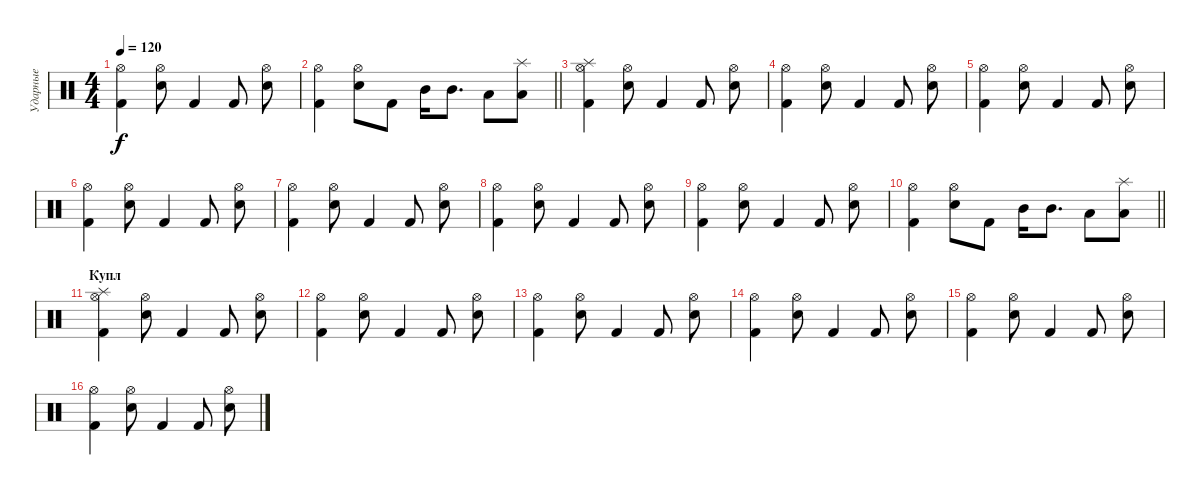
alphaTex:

\track ("Ударные" "Ударные") {instrument percussion}
\staff {score}
\articulation defaults
\ts (4 4)
\tempo 120
\clef neutral
\ks c
("Kick (hit) 2" "Hi-Hat (open)").4{dy f} ("Electric Snare (hit)" "Hi-Hat (open)").8 "Kick (hit) 2".4 "Kick (hit) 2".8 ("Electric Snare (hit)" "Hi-Hat (open)").8 |
\barLineRight lightlight
("Kick (hit) 2" "Hi-Hat (open)").4 ("Electric Snare (hit)" "Hi-Hat (open)").8 "Kick (hit) 2".8 "Mid Tom (hit)".16 "Mid Tom (hit)".8{d} "Low Tom (hit)".8 ("Low Tom (hit)" "Splash (hit)").8 |
("Kick (hit) 2" "Splash (hit)" "Hi-Hat (open)").4 ("Electric Snare (hit)" "Hi-Hat (open)").8 "Kick (hit) 2".4 "Kick (hit) 2".8 ("Electric Snare (hit)" "Hi-Hat (open)").8 |
("Kick (hit) 2" "Hi-Hat (open)").4 ("Electric Snare (hit)" "Hi-Hat (open)").8 "Kick (hit) 2".4 "Kick (hit) 2".8 ("Electric Snare (hit)" "Hi-Hat (open)").8 |
("Kick (hit) 2" "Hi-Hat (open)").4 ("Electric Snare (hit)" "Hi-Hat (open)").8 "Kick (hit) 2".4 "Kick (hit) 2".8 ("Electric Snare (hit)" "Hi-Hat (open)").8 |
("Kick (hit) 2" "Hi-Hat (open)").4 ("Electric Snare (hit)" "Hi-Hat (open)").8 "Kick (hit) 2".4 "Kick (hit) 2".8 ("Electric Snare (hit)" "Hi-Hat (open)").8 |
("Kick (hit) 2" "Hi-Hat (open)").4 ("Electric Snare (hit)" "Hi-Hat (open)").8 "Kick (hit) 2".4 "Kick (hit) 2".8 ("Electric Snare (hit)" "Hi-Hat (open)").8 |
("Kick (hit) 2" "Hi-Hat (open)").4 ("Electric Snare (hit)" "Hi-Hat (open)").8 "Kick (hit) 2".4 "Kick (hit) 2".8 ("Electric Snare (hit)" "Hi-Hat (open)").8 |
("Kick (hit) 2" "Hi-Hat (open)").4 ("Electric Snare (hit)" "Hi-Hat (open)").8 "Kick (hit) 2".4 "Kick (hit) 2".8 ("Electric Snare (hit)" "Hi-Hat (open)").8 |
\barLineRight lightlight
("Kick (hit) 2" "Hi-Hat (open)").4 ("Electric Snare (hit)" "Hi-Hat (open)").8 "Kick (hit) 2".8 "Mid Tom (hit)".16 "Mid Tom (hit)".8{d} "Low Tom (hit)".8 ("Low Tom (hit)" "Splash (hit)").8 |
\section ("" "Купл")
("Kick (hit) 2" "Splash (hit)" "Hi-Hat (open)").4 ("Electric Snare (hit)" "Hi-Hat (open)").8 "Kick (hit) 2".4 "Kick (hit) 2".8 ("Electric Snare (hit)" "Hi-Hat (open)").8 |
("Kick (hit) 2" "Hi-Hat (open)").4 ("Electric Snare (hit)" "Hi-Hat (open)").8 "Kick (hit) 2".4 "Kick (hit) 2".8 ("Electric Snare (hit)" "Hi-Hat (open)").8 |
("Kick (hit) 2" "Hi-Hat (open)").4 ("Electric Snare (hit)" "Hi-Hat (open)").8 "Kick (hit) 2".4 "Kick (hit) 2".8 ("Electric Snare (hit)" "Hi-Hat (open)").8 |
("Kick (hit) 2" "Hi-Hat (open)").4 ("Electric Snare (hit)" "Hi-Hat (open)").8 "Kick (hit) 2".4 "Kick (hit) 2".8 ("Electric Snare (hit)" "Hi-Hat (open)").8 |
("Kick (hit) 2" "Hi-Hat (open)").4 ("Electric Snare (hit)" "Hi-Hat (open)").8 "Kick (hit) 2".4 "Kick (hit) 2".8 ("Electric Snare (hit)" "Hi-Hat (open)").8 |
("Kick (hit) 2" "Hi-Hat (open)").4 ("Electric Snare (hit)" "Hi-Hat (open)").8 "Kick (hit) 2".4 "Kick (hit) 2".8 ("Electric Snare (hit)" "Hi-Hat (open)").8
